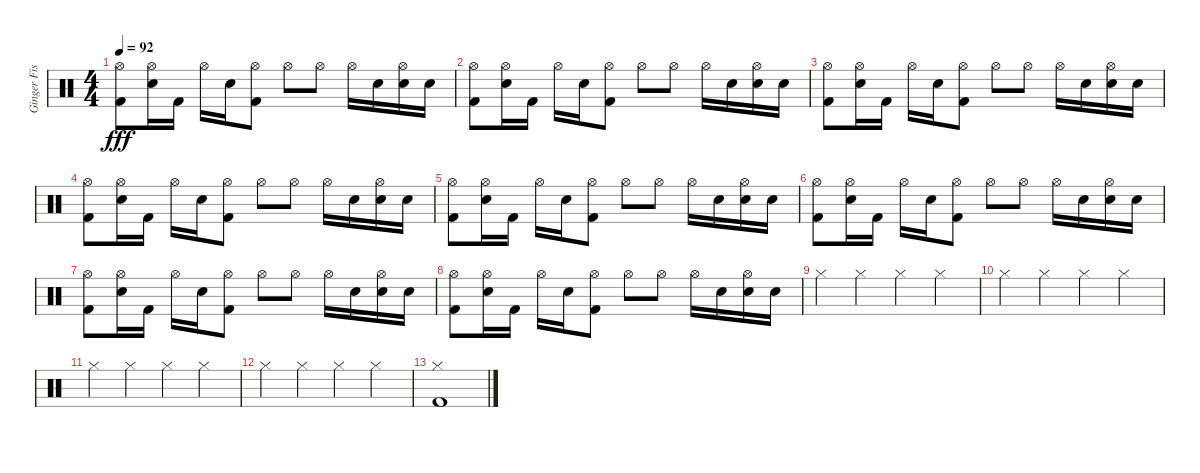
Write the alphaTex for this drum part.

\track ("Ginger Fish" "Ginger Fis") {instrument percussion}
\staff {score}
\articulation defaults
\ts (4 4)
\tempo 92
\clef neutral
\ks c
("Hi-Hat (open)" "Kick (hit) 2").8{dy fff} ("Hi-Hat (open)" "Electric Snare (hit)").16 "Kick (hit) 2".16 "Hi-Hat (open)".16 "Electric Snare (hit)".16 ("Hi-Hat (open)" "Kick (hit) 2").8 "Hi-Hat (open)".8 "Hi-Hat (open)".8 "Hi-Hat (open)".16 "Electric Snare (hit)".16 ("Hi-Hat (open)" "Electric Snare (hit)").16 "Electric Snare (hit)".16 |
("Hi-Hat (open)" "Kick (hit) 2").8 ("Hi-Hat (open)" "Electric Snare (hit)").16 "Kick (hit) 2".16 "Hi-Hat (open)".16 "Electric Snare (hit)".16 ("Hi-Hat (open)" "Kick (hit) 2").8 "Hi-Hat (open)".8 "Hi-Hat (open)".8 "Hi-Hat (open)".16 "Electric Snare (hit)".16 ("Hi-Hat (open)" "Electric Snare (hit)").16 "Electric Snare (hit)".16 |
("Hi-Hat (open)" "Kick (hit) 2").8 ("Hi-Hat (open)" "Electric Snare (hit)").16 "Kick (hit) 2".16 "Hi-Hat (open)".16 "Electric Snare (hit)".16 ("Hi-Hat (open)" "Kick (hit) 2").8 "Hi-Hat (open)".8 "Hi-Hat (open)".8 "Hi-Hat (open)".16 "Electric Snare (hit)".16 ("Hi-Hat (open)" "Electric Snare (hit)").16 "Electric Snare (hit)".16 |
("Hi-Hat (open)" "Kick (hit) 2").8 ("Hi-Hat (open)" "Electric Snare (hit)").16 "Kick (hit) 2".16 "Hi-Hat (open)".16 "Electric Snare (hit)".16 ("Hi-Hat (open)" "Kick (hit) 2").8 "Hi-Hat (open)".8 "Hi-Hat (open)".8 "Hi-Hat (open)".16 "Electric Snare (hit)".16 ("Hi-Hat (open)" "Electric Snare (hit)").16 "Electric Snare (hit)".16 |
("Hi-Hat (open)" "Kick (hit) 2").8 ("Hi-Hat (open)" "Electric Snare (hit)").16 "Kick (hit) 2".16 "Hi-Hat (open)".16 "Electric Snare (hit)".16 ("Hi-Hat (open)" "Kick (hit) 2").8 "Hi-Hat (open)".8 "Hi-Hat (open)".8 "Hi-Hat (open)".16 "Electric Snare (hit)".16 ("Hi-Hat (open)" "Electric Snare (hit)").16 "Electric Snare (hit)".16 |
("Hi-Hat (open)" "Kick (hit) 2").8 ("Hi-Hat (open)" "Electric Snare (hit)").16 "Kick (hit) 2".16 "Hi-Hat (open)".16 "Electric Snare (hit)".16 ("Hi-Hat (open)" "Kick (hit) 2").8 "Hi-Hat (open)".8 "Hi-Hat (open)".8 "Hi-Hat (open)".16 "Electric Snare (hit)".16 ("Hi-Hat (open)" "Electric Snare (hit)").16 "Electric Snare (hit)".16 |
("Hi-Hat (open)" "Kick (hit) 2").8 ("Hi-Hat (open)" "Electric Snare (hit)").16 "Kick (hit) 2".16 "Hi-Hat (open)".16 "Electric Snare (hit)".16 ("Hi-Hat (open)" "Kick (hit) 2").8 "Hi-Hat (open)".8 "Hi-Hat (open)".8 "Hi-Hat (open)".16 "Electric Snare (hit)".16 ("Hi-Hat (open)" "Electric Snare (hit)").16 "Electric Snare (hit)".16 |
("Hi-Hat (open)" "Kick (hit) 2").8 ("Hi-Hat (open)" "Electric Snare (hit)").16 "Kick (hit) 2".16 "Hi-Hat (open)".16 "Electric Snare (hit)".16 ("Hi-Hat (open)" "Kick (hit) 2").8 "Hi-Hat (open)".8 "Hi-Hat (open)".8 "Hi-Hat (open)".16 "Electric Snare (hit)".16 ("Hi-Hat (open)" "Electric Snare (hit)").16 "Electric Snare (hit)".16 |
"Hi-Hat (closed)".4 "Hi-Hat (closed)".4 "Hi-Hat (closed)".4 "Hi-Hat (closed)".4 |
"Hi-Hat (closed)".4 "Hi-Hat (closed)".4 "Hi-Hat (closed)".4 "Hi-Hat (closed)".4 |
"Hi-Hat (closed)".4 "Hi-Hat (closed)".4 "Hi-Hat (closed)".4 "Hi-Hat (closed)".4 |
"Hi-Hat (closed)".4 "Hi-Hat (closed)".4 "Hi-Hat (closed)".4 "Hi-Hat (closed)".4 |
("Hi-Hat (closed)" "Kick (hit) 2").1
